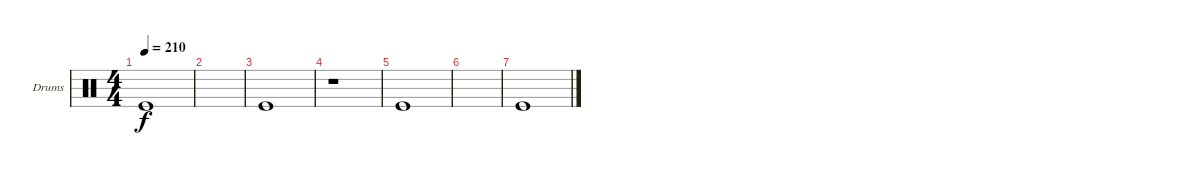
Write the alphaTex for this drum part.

\defaultSystemsLayout 4
\bracketExtendMode groupsimilarinstruments
\firstSystemTrackNameOrientation horizontal
\otherSystemsTrackNameOrientation horizontal
\track ("Drumkitbss" "Drums") {instrument percussion}
\staff {score}
\articulation defaults
\ts (4 4)
\tempo 210
\clef neutral
\ks c "Kick (hit)".1{dy f}
|
|
"Kick (hit)".1 |
r.1 |
"Kick (hit)".1 |
|
"Kick (hit)".1
